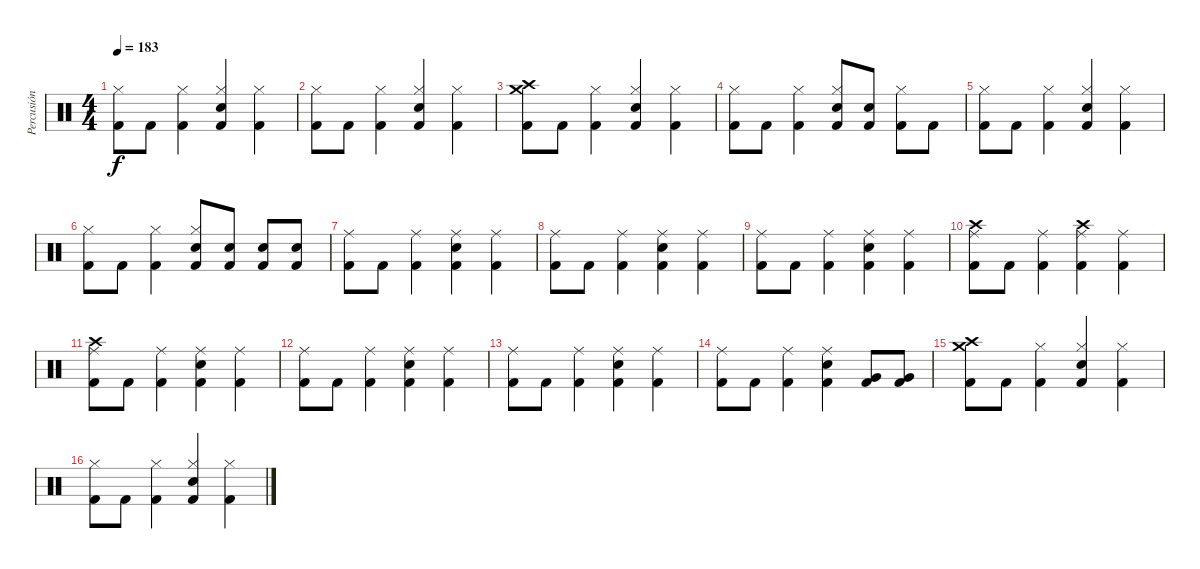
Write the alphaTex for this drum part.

\track ("Percusión" "Percusión") {instrument percussion}
\staff {score}
\articulation defaults
\ts (4 4)
\tempo 183
\clef neutral
\ks c
("Kick (hit) 2" "Hi-Hat (closed)").8{dy f} "Kick (hit) 2".8 ("Kick (hit) 2" "Hi-Hat (closed)").4 ("Kick (hit) 2" "Electric Snare (hit)" "Hi-Hat (closed)").4 ("Kick (hit) 2" "Hi-Hat (closed)").4 |
("Kick (hit) 2" "Hi-Hat (closed)").8 "Kick (hit) 2".8 ("Kick (hit) 2" "Hi-Hat (closed)").4 ("Kick (hit) 2" "Electric Snare (hit)" "Hi-Hat (closed)").4 ("Kick (hit) 2" "Hi-Hat (closed)").4 |
("Kick (hit) 2" "Crash medium (hit)" "Crash high (hit)").8 "Kick (hit) 2".8 ("Kick (hit) 2" "Hi-Hat (closed)").4 ("Kick (hit) 2" "Electric Snare (hit)" "Hi-Hat (closed)").4 ("Kick (hit) 2" "Hi-Hat (closed)").4 |
("Kick (hit) 2" "Hi-Hat (closed)").8 "Kick (hit) 2".8 ("Kick (hit) 2" "Hi-Hat (closed)").4 ("Kick (hit) 2" "Electric Snare (hit)" "Hi-Hat (closed)").8 ("Kick (hit) 2" "Electric Snare (hit)").8 ("Kick (hit) 2" "Hi-Hat (closed)").8 "Kick (hit) 2".8 |
("Kick (hit) 2" "Hi-Hat (closed)").8 "Kick (hit) 2".8 ("Kick (hit) 2" "Hi-Hat (closed)").4 ("Kick (hit) 2" "Electric Snare (hit)" "Hi-Hat (closed)").4 ("Kick (hit) 2" "Hi-Hat (closed)").4 |
("Kick (hit) 2" "Hi-Hat (closed)").8 "Kick (hit) 2".8 ("Kick (hit) 2" "Hi-Hat (closed)").4 ("Kick (hit) 2" "Electric Snare (hit)" "Hi-Hat (closed)").8 ("Kick (hit) 2" "Electric Snare (hit)").8 ("Kick (hit) 2" "Electric Snare (hit)").8 ("Kick (hit) 2" "Electric Snare (hit)").8 |
("Kick (hit) 2" "Ride (middle)").8 "Kick (hit) 2".8 ("Kick (hit) 2" "Ride (middle)").4 ("Kick (hit) 2" "Electric Snare (hit)" "Ride (middle)").4 ("Kick (hit) 2" "Ride (middle)").4 |
("Kick (hit) 2" "Ride (middle)").8 "Kick (hit) 2".8 ("Kick (hit) 2" "Ride (middle)").4 ("Kick (hit) 2" "Electric Snare (hit)" "Ride (middle)").4 ("Kick (hit) 2" "Ride (middle)").4 |
("Kick (hit) 2" "Ride (middle)").8 "Kick (hit) 2".8 ("Kick (hit) 2" "Ride (middle)").4 ("Kick (hit) 2" "Electric Snare (hit)" "Ride (middle)").4 ("Kick (hit) 2" "Ride (middle)").4 |
("Kick (hit) 2" "Ride (middle)" "Crash high (hit)").8 "Kick (hit) 2".8 ("Kick (hit) 2" "Ride (middle)").4 ("Kick (hit) 2" "Ride (middle)" "Crash high (hit)").4 ("Kick (hit) 2" "Ride (middle)").4 |
("Kick (hit) 2" "Ride (middle)" "Crash high (hit)").8 "Kick (hit) 2".8 ("Kick (hit) 2" "Ride (middle)").4 ("Kick (hit) 2" "Electric Snare (hit)" "Ride (middle)").4 ("Kick (hit) 2" "Ride (middle)").4 |
("Kick (hit) 2" "Ride (middle)").8 "Kick (hit) 2".8 ("Kick (hit) 2" "Ride (middle)").4 ("Kick (hit) 2" "Electric Snare (hit)" "Ride (middle)").4 ("Kick (hit) 2" "Ride (middle)").4 |
("Kick (hit) 2" "Ride (middle)").8 "Kick (hit) 2".8 ("Kick (hit) 2" "Ride (middle)").4 ("Kick (hit) 2" "Electric Snare (hit)" "Ride (middle)").4 ("Kick (hit) 2" "Ride (middle)").4 |
("Kick (hit) 2" "Ride (middle)").8 "Kick (hit) 2".8 ("Kick (hit) 2" "Ride (middle)").4 ("Kick (hit) 2" "Electric Snare (hit)" "Ride (middle)").4 ("Kick (hit) 2" "Very Low Tom (hit)").8 ("Kick (hit) 2" "Very Low Tom (hit)").8 |
("Kick (hit) 2" "Crash medium (hit)" "Crash high (hit)").8 "Kick (hit) 2".8 ("Kick (hit) 2" "Hi-Hat (closed)").4 ("Kick (hit) 2" "Electric Snare (hit)" "Hi-Hat (closed)").4 ("Kick (hit) 2" "Hi-Hat (closed)").4 |
("Kick (hit) 2" "Hi-Hat (closed)").8 "Kick (hit) 2".8 ("Kick (hit) 2" "Hi-Hat (closed)").4 ("Kick (hit) 2" "Electric Snare (hit)" "Hi-Hat (closed)").4 ("Kick (hit) 2" "Hi-Hat (closed)").4
